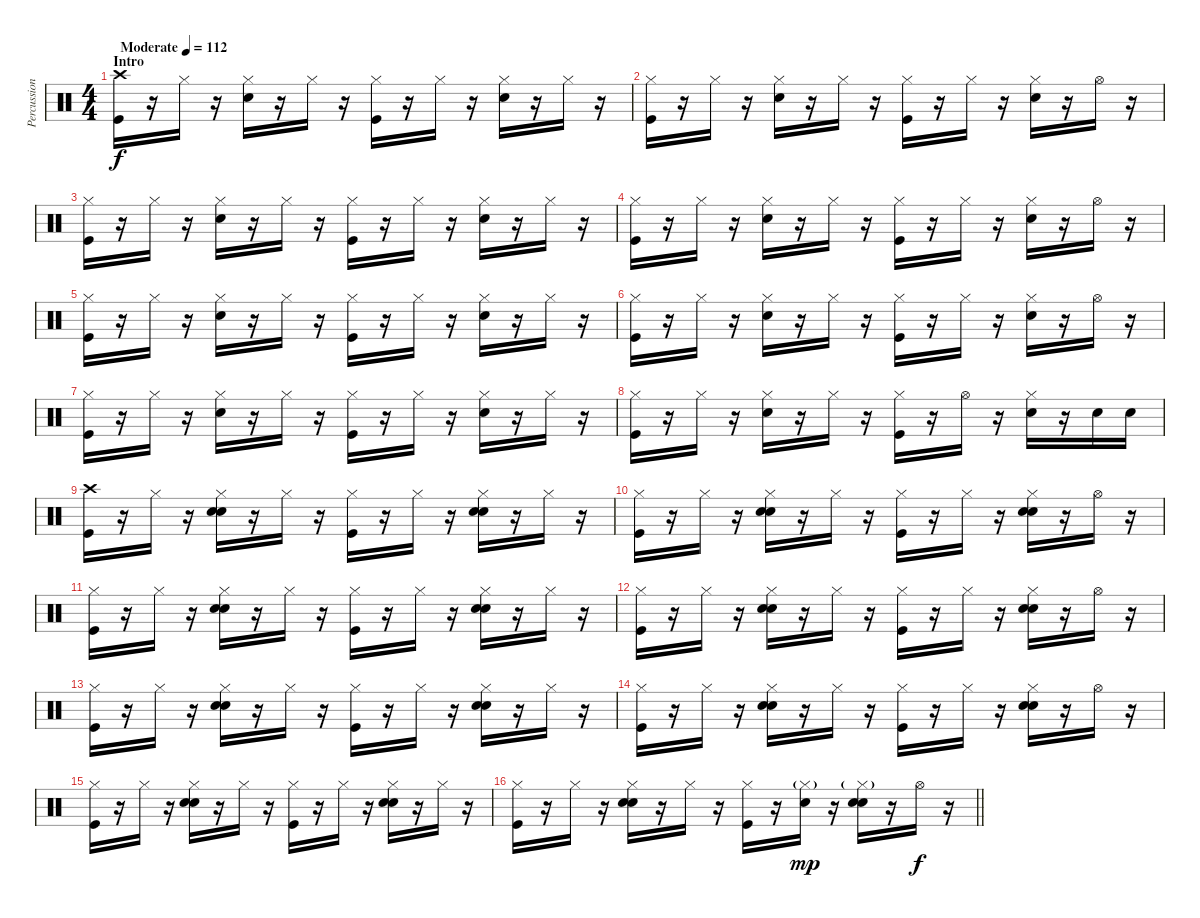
\track ("Percussion" "Percussion") {instrument percussion}
\staff {score}
\articulation defaults
\ts (4 4)
\section ("" "Intro")
\tempo (112 "Moderate")
\clef neutral
\ks c
("Crash high (hit)" "Kick (hit)").16{dy f} r.16 "Hi-Hat (closed)".16 r.16 ("Hi-Hat (closed)" "Snare (hit) 2").16 r.16 "Hi-Hat (closed)".16 r.16 ("Hi-Hat (closed)" "Kick (hit)").16 r.16 "Hi-Hat (closed)".16 r.16 ("Hi-Hat (closed)" "Snare (hit) 2").16 r.16 "Hi-Hat (closed)".16 r.16 |
("Hi-Hat (closed)" "Kick (hit)").16 r.16 "Hi-Hat (closed)".16 r.16 ("Hi-Hat (closed)" "Snare (hit) 2").16 r.16 "Hi-Hat (closed)".16 r.16 ("Hi-Hat (closed)" "Kick (hit)").16 r.16 "Hi-Hat (closed)".16 r.16 ("Hi-Hat (closed)" "Snare (hit) 2").16 r.16 "Hi-Hat (open)".16 r.16 |
("Hi-Hat (closed)" "Kick (hit)").16 r.16 "Hi-Hat (closed)".16 r.16 ("Hi-Hat (closed)" "Snare (hit) 2").16 r.16 "Hi-Hat (closed)".16 r.16 ("Hi-Hat (closed)" "Kick (hit)").16 r.16 "Hi-Hat (closed)".16 r.16 ("Hi-Hat (closed)" "Snare (hit) 2").16 r.16 "Hi-Hat (closed)".16 r.16 |
("Hi-Hat (closed)" "Kick (hit)").16 r.16 "Hi-Hat (closed)".16 r.16 ("Hi-Hat (closed)" "Snare (hit) 2").16 r.16 "Hi-Hat (closed)".16 r.16 ("Hi-Hat (closed)" "Kick (hit)").16 r.16 "Hi-Hat (closed)".16 r.16 ("Hi-Hat (closed)" "Snare (hit) 2").16 r.16 "Hi-Hat (open)".16 r.16 |
("Hi-Hat (closed)" "Kick (hit)").16 r.16 "Hi-Hat (closed)".16 r.16 ("Hi-Hat (closed)" "Snare (hit) 2").16 r.16 "Hi-Hat (closed)".16 r.16 ("Hi-Hat (closed)" "Kick (hit)").16 r.16 "Hi-Hat (closed)".16 r.16 ("Hi-Hat (closed)" "Snare (hit) 2").16 r.16 "Hi-Hat (closed)".16 r.16 |
("Hi-Hat (closed)" "Kick (hit)").16 r.16 "Hi-Hat (closed)".16 r.16 ("Hi-Hat (closed)" "Snare (hit) 2").16 r.16 "Hi-Hat (closed)".16 r.16 ("Hi-Hat (closed)" "Kick (hit)").16 r.16 "Hi-Hat (closed)".16 r.16 ("Hi-Hat (closed)" "Snare (hit) 2").16 r.16 "Hi-Hat (open)".16 r.16 |
("Hi-Hat (closed)" "Kick (hit)").16 r.16 "Hi-Hat (closed)".16 r.16 ("Hi-Hat (closed)" "Snare (hit) 2").16 r.16 "Hi-Hat (closed)".16 r.16 ("Hi-Hat (closed)" "Kick (hit)").16 r.16 "Hi-Hat (closed)".16 r.16 ("Hi-Hat (closed)" "Snare (hit) 2").16 r.16 "Hi-Hat (closed)".16 r.16 |
("Hi-Hat (closed)" "Kick (hit)").16 r.16 "Hi-Hat (closed)".16 r.16 ("Hi-Hat (closed)" "Snare (hit) 2").16 r.16 "Hi-Hat (closed)".16 r.16 ("Hi-Hat (closed)" "Kick (hit)").16 r.16 "Hi-Hat (open)".16 r.16 ("Hi-Hat (closed)" "Snare (hit) 2").16 r.16 "Snare (hit) 2".16 "Snare (hit) 2".16 |
("Crash high (hit)" "Kick (hit)").16 r.16 "Hi-Hat (closed)".16 r.16 ("Hi-Hat (closed)" "Hand Clap (hit)" "Snare (hit) 2").16 r.16 "Hi-Hat (closed)".16 r.16 ("Hi-Hat (closed)" "Kick (hit)").16 r.16 "Hi-Hat (closed)".16 r.16 ("Hi-Hat (closed)" "Hand Clap (hit)" "Snare (hit) 2").16 r.16 "Hi-Hat (closed)".16 r.16 |
("Hi-Hat (closed)" "Kick (hit)").16 r.16 "Hi-Hat (closed)".16 r.16 ("Hi-Hat (closed)" "Hand Clap (hit)" "Snare (hit) 2").16 r.16 "Hi-Hat (closed)".16 r.16 ("Hi-Hat (closed)" "Kick (hit)").16 r.16 "Hi-Hat (closed)".16 r.16 ("Hi-Hat (closed)" "Hand Clap (hit)" "Snare (hit) 2").16 r.16 "Hi-Hat (open)".16 r.16 |
("Hi-Hat (closed)" "Kick (hit)").16 r.16 "Hi-Hat (closed)".16 r.16 ("Hi-Hat (closed)" "Hand Clap (hit)" "Snare (hit) 2").16 r.16 "Hi-Hat (closed)".16 r.16 ("Hi-Hat (closed)" "Kick (hit)").16 r.16 "Hi-Hat (closed)".16 r.16 ("Hi-Hat (closed)" "Hand Clap (hit)" "Snare (hit) 2").16 r.16 "Hi-Hat (closed)".16 r.16 |
("Hi-Hat (closed)" "Kick (hit)").16 r.16 "Hi-Hat (closed)".16 r.16 ("Hi-Hat (closed)" "Hand Clap (hit)" "Snare (hit) 2").16 r.16 "Hi-Hat (closed)".16 r.16 ("Hi-Hat (closed)" "Kick (hit)").16 r.16 "Hi-Hat (closed)".16 r.16 ("Hi-Hat (closed)" "Hand Clap (hit)" "Snare (hit) 2").16 r.16 "Hi-Hat (open)".16 r.16 |
("Hi-Hat (closed)" "Kick (hit)").16 r.16 "Hi-Hat (closed)".16 r.16 ("Hi-Hat (closed)" "Hand Clap (hit)" "Snare (hit) 2").16 r.16 "Hi-Hat (closed)".16 r.16 ("Hi-Hat (closed)" "Kick (hit)").16 r.16 "Hi-Hat (closed)".16 r.16 ("Hi-Hat (closed)" "Hand Clap (hit)" "Snare (hit) 2").16 r.16 "Hi-Hat (closed)".16 r.16 |
("Hi-Hat (closed)" "Kick (hit)").16 r.16 "Hi-Hat (closed)".16 r.16 ("Hi-Hat (closed)" "Hand Clap (hit)" "Snare (hit) 2").16 r.16 "Hi-Hat (closed)".16 r.16 ("Hi-Hat (closed)" "Kick (hit)").16 r.16 "Hi-Hat (closed)".16 r.16 ("Hi-Hat (closed)" "Hand Clap (hit)" "Snare (hit) 2").16 r.16 "Hi-Hat (open)".16 r.16 |
("Hi-Hat (closed)" "Kick (hit)").16 r.16 "Hi-Hat (closed)".16 r.16 ("Hi-Hat (closed)" "Hand Clap (hit)" "Snare (hit) 2").16 r.16 "Hi-Hat (closed)".16 r.16 ("Hi-Hat (closed)" "Kick (hit)").16 r.16 "Hi-Hat (closed)".16 r.16 ("Hi-Hat (closed)" "Hand Clap (hit)" "Snare (hit) 2").16 r.16 "Hi-Hat (closed)".16 r.16 |
\barLineRight lightlight
("Hi-Hat (closed)" "Kick (hit)").16 r.16 "Hi-Hat (closed)".16 r.16 ("Hi-Hat (closed)" "Hand Clap (hit)" "Snare (hit) 2").16 r.16 "Hi-Hat (closed)".16 r.16 ("Hi-Hat (closed)" "Kick (hit)").16 r.16 ("Hi-Hat (closed)"{g} "Snare (hit) 2").16{dy mp} r.16 ("Hi-Hat (closed)"{g} "Hand Clap (hit)" "Snare (hit) 2").16 r.16 "Hi-Hat (open)".16{dy f} r.16
